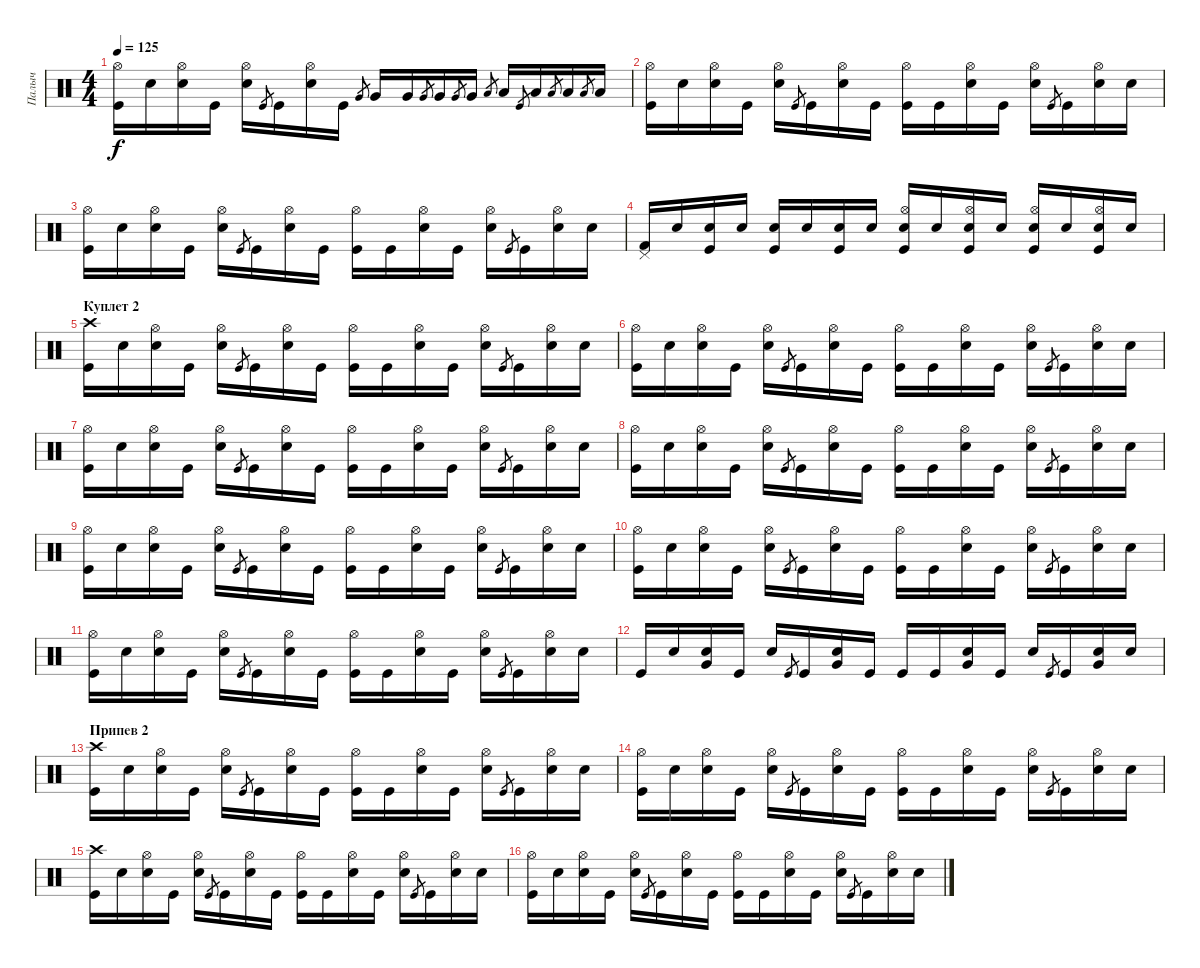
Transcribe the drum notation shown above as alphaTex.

\track ("Палыч" "Палыч") {instrument percussion}
\staff {score}
\articulation defaults
\ts (4 4)
\tempo 125
\clef neutral
\ks c
("Kick (hit)" "Hi-Hat (open)").16{dy f} "Snare (hit)"{x}.16 ("Snare (hit) 2" "Hi-Hat (open)").16 "Kick (hit)".16 ("Electric Snare (hit)"{x} "Hi-Hat (open)").16 "Kick (hit)".8{gr} "Kick (hit)".16 ("Snare (hit) 2" "Hi-Hat (open)").16 "Kick (hit)"{x}.16 "Very Low Tom (hit)".8{gr} "Very Low Tom (hit)".16 "Very Low Tom (hit)".16 "Very Low Tom (hit)".8{gr} "Very Low Tom (hit)".16 "Very Low Tom (hit)".8{gr} "Very Low Tom (hit)".16 "Low Floor Tom (hit)".8{gr} "Low Floor Tom (hit)".16 "Kick (hit)".8{gr} "Low Floor Tom (hit)".16 "Low Floor Tom (hit)".8{gr} "Low Floor Tom (hit)".16 "Low Floor Tom (hit)".8{gr} "Low Floor Tom (hit)".16 |
("Kick (hit)" "Hi-Hat (open)").16 "Snare (hit)"{x}.16 ("Snare (hit) 2" "Hi-Hat (open)").16 "Kick (hit)".16 ("Electric Snare (hit)"{x} "Hi-Hat (open)").16 "Kick (hit)".8{gr} "Kick (hit)".16 ("Snare (hit) 2" "Hi-Hat (open)").16 "Kick (hit)"{x}.16 ("Kick (hit)" "Hi-Hat (open)").16 "Kick (hit)"{x}.16 ("Snare (hit) 2" "Hi-Hat (open)").16 "Kick (hit)".16 ("Snare (hit)"{x} "Hi-Hat (open)").16 "Kick (hit)".8{gr} "Kick (hit)".16 ("Snare (hit) 2" "Hi-Hat (open)").16 "Snare (hit)"{x}.16 |
("Kick (hit)" "Hi-Hat (open)").16 "Snare (hit)"{x}.16 ("Snare (hit) 2" "Hi-Hat (open)").16 "Kick (hit)".16 ("Electric Snare (hit)"{x} "Hi-Hat (open)").16 "Kick (hit)".8{gr} "Kick (hit)".16 ("Snare (hit) 2" "Hi-Hat (open)").16 "Kick (hit)"{x}.16 ("Kick (hit)" "Hi-Hat (open)").16 "Kick (hit)"{x}.16 ("Snare (hit) 2" "Hi-Hat (open)").16 "Kick (hit)".16 ("Snare (hit)"{x} "Hi-Hat (open)").16 "Kick (hit)".8{gr} "Kick (hit)".16 ("Snare (hit) 2" "Hi-Hat (open)").16 "Snare (hit)"{x}.16 |
("Kick (hit) 2" "Pedal Hi-Hat (hit)").16 "Snare (hit)"{x}.16 ("Kick (hit)" "Snare (hit)"{x}).16 "Snare (hit)"{x}.16 ("Kick (hit)" "Snare (hit)"{x}).16 "Snare (hit)"{x}.16 ("Kick (hit)" "Snare (hit)"{x}).16 "Snare (hit)"{x}.16 ("Kick (hit)" "Snare (hit)"{x} "Hi-Hat (open)").16 "Snare (hit)"{x}.16 ("Kick (hit)" "Snare (hit)"{x} "Hi-Hat (open)").16 "Snare (hit)"{x}.16 ("Kick (hit)" "Snare (hit)"{x} "Hi-Hat (open)").16 "Snare (hit)"{x}.16 ("Kick (hit)" "Snare (hit)"{x} "Hi-Hat (open)").16 "Snare (hit)"{x}.16 |
\section ("" "Куплет 2")
("Kick (hit)" "Crash high (hit)").16 "Snare (hit)"{x}.16 ("Snare (hit) 2" "Hi-Hat (open)").16 "Kick (hit)".16 ("Electric Snare (hit)"{x} "Hi-Hat (open)").16 "Kick (hit)".8{gr} "Kick (hit)".16 ("Snare (hit) 2" "Hi-Hat (open)").16 "Kick (hit)"{x}.16 ("Kick (hit)" "Hi-Hat (open)").16 "Kick (hit)"{x}.16 ("Snare (hit) 2" "Hi-Hat (open)").16 "Kick (hit)".16 ("Snare (hit)"{x} "Hi-Hat (open)").16 "Kick (hit)".8{gr} "Kick (hit)".16 ("Snare (hit) 2" "Hi-Hat (open)").16 "Snare (hit)"{x}.16 |
("Kick (hit)" "Hi-Hat (open)").16 "Snare (hit)"{x}.16 ("Snare (hit) 2" "Hi-Hat (open)").16 "Kick (hit)".16 ("Electric Snare (hit)"{x} "Hi-Hat (open)").16 "Kick (hit)".8{gr} "Kick (hit)".16 ("Snare (hit) 2" "Hi-Hat (open)").16 "Kick (hit)"{x}.16 ("Kick (hit)" "Hi-Hat (open)").16 "Kick (hit)"{x}.16 ("Snare (hit) 2" "Hi-Hat (open)").16 "Kick (hit)".16 ("Snare (hit)"{x} "Hi-Hat (open)").16 "Kick (hit)".8{gr} "Kick (hit)".16 ("Snare (hit) 2" "Hi-Hat (open)").16 "Snare (hit)"{x}.16 |
("Kick (hit)" "Hi-Hat (open)").16 "Snare (hit)"{x}.16 ("Snare (hit) 2" "Hi-Hat (open)").16 "Kick (hit)".16 ("Electric Snare (hit)"{x} "Hi-Hat (open)").16 "Kick (hit)".8{gr} "Kick (hit)".16 ("Snare (hit) 2" "Hi-Hat (open)").16 "Kick (hit)"{x}.16 ("Kick (hit)" "Hi-Hat (open)").16 "Kick (hit)"{x}.16 ("Snare (hit) 2" "Hi-Hat (open)").16 "Kick (hit)".16 ("Snare (hit)"{x} "Hi-Hat (open)").16 "Kick (hit)".8{gr} "Kick (hit)".16 ("Snare (hit) 2" "Hi-Hat (open)").16 "Snare (hit)"{x}.16 |
("Kick (hit)" "Hi-Hat (open)").16 "Snare (hit)"{x}.16 ("Snare (hit) 2" "Hi-Hat (open)").16 "Kick (hit)".16 ("Electric Snare (hit)"{x} "Hi-Hat (open)").16 "Kick (hit)".8{gr} "Kick (hit)".16 ("Snare (hit) 2" "Hi-Hat (open)").16 "Kick (hit)"{x}.16 ("Kick (hit)" "Hi-Hat (open)").16 "Kick (hit)"{x}.16 ("Snare (hit) 2" "Hi-Hat (open)").16 "Kick (hit)".16 ("Snare (hit)"{x} "Hi-Hat (open)").16 "Kick (hit)".8{gr} "Kick (hit)".16 ("Snare (hit) 2" "Hi-Hat (open)").16 "Snare (hit)"{x}.16 |
("Kick (hit)" "Hi-Hat (open)").16 "Snare (hit)"{x}.16 ("Snare (hit) 2" "Hi-Hat (open)").16 "Kick (hit)".16 ("Electric Snare (hit)"{x} "Hi-Hat (open)").16 "Kick (hit)".8{gr} "Kick (hit)".16 ("Snare (hit) 2" "Hi-Hat (open)").16 "Kick (hit)"{x}.16 ("Kick (hit)" "Hi-Hat (open)").16 "Kick (hit)"{x}.16 ("Snare (hit) 2" "Hi-Hat (open)").16 "Kick (hit)".16 ("Snare (hit)"{x} "Hi-Hat (open)").16 "Kick (hit)".8{gr} "Kick (hit)".16 ("Snare (hit) 2" "Hi-Hat (open)").16 "Snare (hit)"{x}.16 |
("Kick (hit)" "Hi-Hat (open)").16 "Snare (hit)"{x}.16 ("Snare (hit) 2" "Hi-Hat (open)").16 "Kick (hit)".16 ("Electric Snare (hit)"{x} "Hi-Hat (open)").16 "Kick (hit)".8{gr} "Kick (hit)".16 ("Snare (hit) 2" "Hi-Hat (open)").16 "Kick (hit)"{x}.16 ("Kick (hit)" "Hi-Hat (open)").16 "Kick (hit)"{x}.16 ("Snare (hit) 2" "Hi-Hat (open)").16 "Kick (hit)".16 ("Snare (hit)"{x} "Hi-Hat (open)").16 "Kick (hit)".8{gr} "Kick (hit)".16 ("Snare (hit) 2" "Hi-Hat (open)").16 "Snare (hit)"{x}.16 |
("Kick (hit)" "Hi-Hat (open)").16 "Snare (hit)"{x}.16 ("Snare (hit) 2" "Hi-Hat (open)").16 "Kick (hit)".16 ("Electric Snare (hit)"{x} "Hi-Hat (open)").16 "Kick (hit)".8{gr} "Kick (hit)".16 ("Snare (hit) 2" "Hi-Hat (open)").16 "Kick (hit)"{x}.16 ("Kick (hit)" "Hi-Hat (open)").16 "Kick (hit)"{x}.16 ("Snare (hit) 2" "Hi-Hat (open)").16 "Kick (hit)".16 ("Snare (hit)"{x} "Hi-Hat (open)").16 "Kick (hit)".8{gr} "Kick (hit)".16 ("Snare (hit) 2" "Hi-Hat (open)").16 "Snare (hit)"{x}.16 |
"Kick (hit)".16 "Snare (hit)"{x}.16 ("Snare (hit) 2" "Very Low Tom (hit)").16 "Kick (hit)".16 "Electric Snare (hit)"{x}.16 "Kick (hit)".8{gr} "Kick (hit)".16 ("Snare (hit) 2" "Very Low Tom (hit)").16 "Kick (hit)"{x}.16 "Kick (hit)".16 "Kick (hit)"{x}.16 ("Snare (hit) 2" "Very Low Tom (hit)").16 "Kick (hit)".16 "Snare (hit)"{x}.16 "Kick (hit)".8{gr} "Kick (hit)".16 ("Snare (hit) 2" "Very Low Tom (hit)").16 "Snare (hit)"{x}.16 |
\section ("" "Припев 2")
("Kick (hit)" "Crash high (hit)").16 "Snare (hit)"{x}.16 ("Snare (hit) 2" "Hi-Hat (open)").16 "Kick (hit)".16 ("Electric Snare (hit)"{x} "Hi-Hat (open)").16 "Kick (hit)".8{gr} "Kick (hit)".16 ("Snare (hit) 2" "Hi-Hat (open)").16 "Kick (hit)"{x}.16 ("Kick (hit)" "Hi-Hat (open)").16 "Kick (hit)"{x}.16 ("Snare (hit) 2" "Hi-Hat (open)").16 "Kick (hit)".16 ("Snare (hit)"{x} "Hi-Hat (open)").16 "Kick (hit)".8{gr} "Kick (hit)".16 ("Snare (hit) 2" "Hi-Hat (open)").16 "Snare (hit)"{x}.16 |
("Kick (hit)" "Hi-Hat (open)").16 "Snare (hit)"{x}.16 ("Snare (hit) 2" "Hi-Hat (open)").16 "Kick (hit)".16 ("Electric Snare (hit)"{x} "Hi-Hat (open)").16 "Kick (hit)".8{gr} "Kick (hit)".16 ("Snare (hit) 2" "Hi-Hat (open)").16 "Kick (hit)"{x}.16 ("Kick (hit)" "Hi-Hat (open)").16 "Kick (hit)"{x}.16 ("Snare (hit) 2" "Hi-Hat (open)").16 "Kick (hit)".16 ("Snare (hit)"{x} "Hi-Hat (open)").16 "Kick (hit)".8{gr} "Kick (hit)".16 ("Snare (hit) 2" "Hi-Hat (open)").16 "Snare (hit)"{x}.16 |
("Kick (hit)" "Crash high (hit)").16 "Snare (hit)"{x}.16 ("Snare (hit) 2" "Hi-Hat (open)").16 "Kick (hit)".16 ("Electric Snare (hit)"{x} "Hi-Hat (open)").16 "Kick (hit)".8{gr} "Kick (hit)".16 ("Snare (hit) 2" "Hi-Hat (open)").16 "Kick (hit)"{x}.16 ("Kick (hit)" "Hi-Hat (open)").16 "Kick (hit)"{x}.16 ("Snare (hit) 2" "Hi-Hat (open)").16 "Kick (hit)".16 ("Snare (hit)"{x} "Hi-Hat (open)").16 "Kick (hit)".8{gr} "Kick (hit)".16 ("Snare (hit) 2" "Hi-Hat (open)").16 "Snare (hit)"{x}.16 |
("Kick (hit)" "Hi-Hat (open)").16 "Snare (hit)"{x}.16 ("Snare (hit) 2" "Hi-Hat (open)").16 "Kick (hit)".16 ("Electric Snare (hit)"{x} "Hi-Hat (open)").16 "Kick (hit)".8{gr} "Kick (hit)".16 ("Snare (hit) 2" "Hi-Hat (open)").16 "Kick (hit)"{x}.16 ("Kick (hit)" "Hi-Hat (open)").16 "Kick (hit)"{x}.16 ("Snare (hit) 2" "Hi-Hat (open)").16 "Kick (hit)".16 ("Snare (hit)"{x} "Hi-Hat (open)").16 "Kick (hit)".8{gr} "Kick (hit)".16 ("Snare (hit) 2" "Hi-Hat (open)").16 "Snare (hit)"{x}.16
